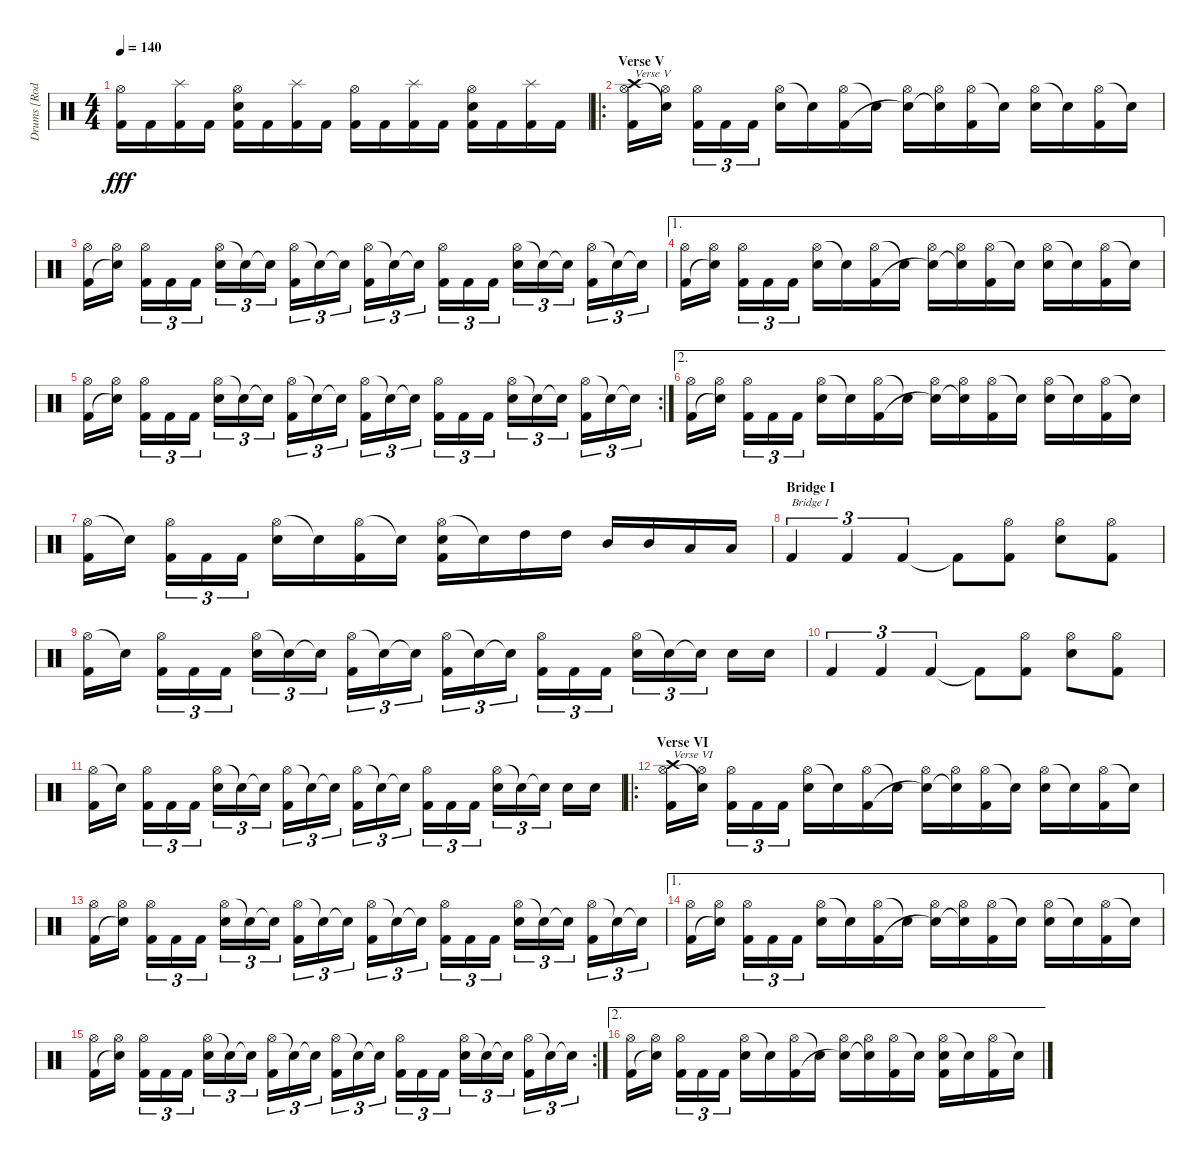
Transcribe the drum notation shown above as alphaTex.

\track ("Drums [Rodney Holder]" "Drums [Rod") {instrument percussion}
\staff {score}
\articulation defaults
\ts (4 4)
\tempo 140
\clef neutral
\ks c
("Hi-Hat (open)" "Kick (hit) 2").16{dy fff} "Kick (hit) 2".16 ("Splash (hit)" "Kick (hit) 2").16 "Kick (hit) 2".16 ("Hi-Hat (open)" "Electric Snare (hit)" "Kick (hit) 2").16 "Kick (hit) 2".16 ("Splash (hit)" "Kick (hit) 2").16 "Kick (hit) 2".16 ("Hi-Hat (open)" "Kick (hit) 2").16 "Kick (hit) 2".16 ("Splash (hit)" "Kick (hit) 2").16 "Kick (hit) 2".16 ("Hi-Hat (open)" "Electric Snare (hit)" "Kick (hit) 2").16 "Kick (hit) 2".16 ("Splash (hit)" "Kick (hit) 2").16 "Kick (hit) 2".16 |
\ro
\section ("" "Verse V")
("Crash high (hit)" "Hi-Hat (open)" "Kick (hit) 2").16{txt "Verse V"} ("Hi-Hat (open)" "Snare (hit)"{t}).16 ("Hi-Hat (open)" "Kick (hit) 2").16{tu (3 2)} "Kick (hit) 2".16{tu (3 2)} "Kick (hit) 2".16{tu (3 2)} ("Hi-Hat (open)" "Electric Snare (hit)").16 "Snare (hit)"{t}.16 ("Hi-Hat (open)" "Kick (hit) 2").16 "Snare (hit)"{t}.16 ("Hi-Hat (open)" "Snare (hit)"{t}).16 ("Hi-Hat (open)" "Snare (hit)"{t}).16 ("Hi-Hat (open)" "Kick (hit) 2").16 "Snare (hit)"{t}.16 ("Hi-Hat (open)" "Electric Snare (hit)").16 "Snare (hit)"{t}.16 ("Hi-Hat (open)" "Kick (hit) 2").16 "Snare (hit)"{t}.16 |
("Hi-Hat (open)" "Kick (hit) 2").16 ("Hi-Hat (open)" "Snare (hit)"{t}).16 ("Hi-Hat (open)" "Kick (hit) 2").16{tu (3 2)} "Kick (hit) 2".16{tu (3 2)} "Kick (hit) 2".16{tu (3 2)} ("Hi-Hat (open)" "Electric Snare (hit)").16{tu (3 2)} "Snare (hit)"{t}.16{tu (3 2)} "Snare (hit)"{t}.16{tu (3 2)} ("Hi-Hat (open)" "Kick (hit) 2").16{tu (3 2)} "Snare (hit)"{t}.16{tu (3 2)} "Snare (hit)"{t}.16{tu (3 2)} ("Hi-Hat (open)" "Kick (hit) 2").16{tu (3 2)} "Snare (hit)"{t}.16{tu (3 2)} "Snare (hit)"{t}.16{tu (3 2)} ("Hi-Hat (open)" "Kick (hit) 2").16{tu (3 2)} "Kick (hit) 2".16{tu (3 2)} "Kick (hit) 2".16{tu (3 2)} ("Hi-Hat (open)" "Electric Snare (hit)").16{tu (3 2)} "Snare (hit)"{t}.16{tu (3 2)} "Snare (hit)"{t}.16{tu (3 2)} ("Hi-Hat (open)" "Kick (hit) 2").16{tu (3 2)} "Snare (hit)"{t}.16{tu (3 2)} "Snare (hit)"{t}.16{tu (3 2)} |
\ae 1
("Hi-Hat (open)" "Kick (hit) 2").16 ("Hi-Hat (open)" "Snare (hit)"{t}).16 ("Hi-Hat (open)" "Kick (hit) 2").16{tu (3 2)} "Kick (hit) 2".16{tu (3 2)} "Kick (hit) 2".16{tu (3 2)} ("Hi-Hat (open)" "Electric Snare (hit)").16 "Snare (hit)"{t}.16 ("Hi-Hat (open)" "Kick (hit) 2").16 "Snare (hit)"{t}.16 ("Hi-Hat (open)" "Snare (hit)"{t}).16 ("Hi-Hat (open)" "Snare (hit)"{t}).16 ("Hi-Hat (open)" "Kick (hit) 2").16 "Snare (hit)"{t}.16 ("Hi-Hat (open)" "Electric Snare (hit)").16 "Snare (hit)"{t}.16 ("Hi-Hat (open)" "Kick (hit) 2").16 "Snare (hit)"{t}.16 |
\rc 2
("Hi-Hat (open)" "Kick (hit) 2").16 ("Hi-Hat (open)" "Snare (hit)"{t}).16 ("Hi-Hat (open)" "Kick (hit) 2").16{tu (3 2)} "Kick (hit) 2".16{tu (3 2)} "Kick (hit) 2".16{tu (3 2)} ("Hi-Hat (open)" "Electric Snare (hit)").16{tu (3 2)} "Snare (hit)"{t}.16{tu (3 2)} "Snare (hit)"{t}.16{tu (3 2)} ("Hi-Hat (open)" "Kick (hit) 2").16{tu (3 2)} "Snare (hit)"{t}.16{tu (3 2)} "Snare (hit)"{t}.16{tu (3 2)} ("Hi-Hat (open)" "Kick (hit) 2").16{tu (3 2)} "Snare (hit)"{t}.16{tu (3 2)} "Snare (hit)"{t}.16{tu (3 2)} ("Hi-Hat (open)" "Kick (hit) 2").16{tu (3 2)} "Kick (hit) 2".16{tu (3 2)} "Kick (hit) 2".16{tu (3 2)} ("Hi-Hat (open)" "Electric Snare (hit)").16{tu (3 2)} "Snare (hit)"{t}.16{tu (3 2)} "Snare (hit)"{t}.16{tu (3 2)} ("Hi-Hat (open)" "Kick (hit) 2").16{tu (3 2)} "Snare (hit)"{t}.16{tu (3 2)} "Snare (hit)"{t}.16{tu (3 2)} |
\ae 2
("Hi-Hat (open)" "Kick (hit) 2").16 ("Hi-Hat (open)" "Snare (hit)"{t}).16 ("Hi-Hat (open)" "Kick (hit) 2").16{tu (3 2)} "Kick (hit) 2".16{tu (3 2)} "Kick (hit) 2".16{tu (3 2)} ("Hi-Hat (open)" "Electric Snare (hit)").16 "Snare (hit)"{t}.16 ("Hi-Hat (open)" "Kick (hit) 2").16 "Snare (hit)"{t}.16 ("Hi-Hat (open)" "Snare (hit)"{t}).16 ("Hi-Hat (open)" "Snare (hit)"{t}).16 ("Hi-Hat (open)" "Kick (hit) 2").16 "Snare (hit)"{t}.16 ("Hi-Hat (open)" "Electric Snare (hit)").16 "Snare (hit)"{t}.16 ("Hi-Hat (open)" "Kick (hit) 2").16 "Snare (hit)"{t}.16 |
("Hi-Hat (open)" "Kick (hit) 2").16 "Snare (hit)"{t}.16 ("Hi-Hat (open)" "Kick (hit) 2").16{tu (3 2)} "Kick (hit) 2".16{tu (3 2)} "Kick (hit) 2".16{tu (3 2)} ("Hi-Hat (open)" "Electric Snare (hit)").16 "Snare (hit)"{t}.16 ("Hi-Hat (open)" "Kick (hit) 2").16 "Snare (hit)"{t}.16 ("Hi-Hat (open)" "Electric Snare (hit)" "Kick (hit) 2").16 "Snare (hit)"{t}.16 "High Tom (hit)".16 "High Tom (hit)".16 "Mid Tom (hit)".16 "Mid Tom (hit)".16 "Low Tom (hit)".16 "Low Tom (hit)".16 |
\section ("" "Bridge I")
"Kick (hit) 2".4{tu (3 2) txt "Bridge I"} "Kick (hit) 2".4{tu (3 2)} "Kick (hit) 2".4{tu (3 2)} "Kick (hit) 2"{t}.8 ("Hi-Hat (open)" "Kick (hit) 2").8 ("Hi-Hat (open)" "Electric Snare (hit)").8 ("Hi-Hat (open)" "Kick (hit) 2").8 |
("Hi-Hat (open)" "Kick (hit) 2").16 "Snare (hit)"{t}.16 ("Hi-Hat (open)" "Kick (hit) 2").16{tu (3 2)} "Kick (hit) 2".16{tu (3 2)} "Kick (hit) 2".16{tu (3 2)} ("Hi-Hat (open)" "Electric Snare (hit)").16{tu (3 2)} "Snare (hit)"{t}.16{tu (3 2)} "Snare (hit)"{t}.16{tu (3 2)} ("Hi-Hat (open)" "Kick (hit) 2").16{tu (3 2)} "Snare (hit)"{t}.16{tu (3 2)} "Snare (hit)"{t}.16{tu (3 2)} ("Hi-Hat (open)" "Kick (hit) 2").16{tu (3 2)} "Snare (hit)"{t}.16{tu (3 2)} "Snare (hit)"{t}.16{tu (3 2)} ("Hi-Hat (open)" "Kick (hit) 2").16{tu (3 2)} "Kick (hit) 2".16{tu (3 2)} "Kick (hit) 2".16{tu (3 2)} ("Hi-Hat (open)" "Electric Snare (hit)").16{tu (3 2)} "Snare (hit)"{t}.16{tu (3 2)} "Snare (hit)"{t}.16{tu (3 2)} "Electric Snare (hit)".16 "Electric Snare (hit)".16 |
"Kick (hit) 2".4{tu (3 2)} "Kick (hit) 2".4{tu (3 2)} "Kick (hit) 2".4{tu (3 2)} "Kick (hit) 2"{t}.8 ("Hi-Hat (open)" "Kick (hit) 2").8 ("Hi-Hat (open)" "Electric Snare (hit)").8 ("Hi-Hat (open)" "Kick (hit) 2").8 |
("Hi-Hat (open)" "Kick (hit) 2").16 "Snare (hit)"{t}.16 ("Hi-Hat (open)" "Kick (hit) 2").16{tu (3 2)} "Kick (hit) 2".16{tu (3 2)} "Kick (hit) 2".16{tu (3 2)} ("Hi-Hat (open)" "Electric Snare (hit)").16{tu (3 2)} "Snare (hit)"{t}.16{tu (3 2)} "Snare (hit)"{t}.16{tu (3 2)} ("Hi-Hat (open)" "Kick (hit) 2").16{tu (3 2)} "Snare (hit)"{t}.16{tu (3 2)} "Snare (hit)"{t}.16{tu (3 2)} ("Hi-Hat (open)" "Kick (hit) 2").16{tu (3 2)} "Snare (hit)"{t}.16{tu (3 2)} "Snare (hit)"{t}.16{tu (3 2)} ("Hi-Hat (open)" "Kick (hit) 2").16{tu (3 2)} "Kick (hit) 2".16{tu (3 2)} "Kick (hit) 2".16{tu (3 2)} ("Hi-Hat (open)" "Electric Snare (hit)").16{tu (3 2)} "Snare (hit)"{t}.16{tu (3 2)} "Snare (hit)"{t}.16{tu (3 2)} "Electric Snare (hit)".16 "Electric Snare (hit)".16 |
\ro
\section ("" "Verse VI")
("Crash high (hit)" "Hi-Hat (open)" "Kick (hit) 2").16{txt "Verse VI"} ("Hi-Hat (open)" "Snare (hit)"{t}).16 ("Hi-Hat (open)" "Kick (hit) 2").16{tu (3 2)} "Kick (hit) 2".16{tu (3 2)} "Kick (hit) 2".16{tu (3 2)} ("Hi-Hat (open)" "Electric Snare (hit)").16 "Snare (hit)"{t}.16 ("Hi-Hat (open)" "Kick (hit) 2").16 "Snare (hit)"{t}.16 ("Hi-Hat (open)" "Snare (hit)"{t}).16 ("Hi-Hat (open)" "Snare (hit)"{t}).16 ("Hi-Hat (open)" "Kick (hit) 2").16 "Snare (hit)"{t}.16 ("Hi-Hat (open)" "Electric Snare (hit)").16 "Snare (hit)"{t}.16 ("Hi-Hat (open)" "Kick (hit) 2").16 "Snare (hit)"{t}.16 |
("Hi-Hat (open)" "Kick (hit) 2").16 ("Hi-Hat (open)" "Snare (hit)"{t}).16 ("Hi-Hat (open)" "Kick (hit) 2").16{tu (3 2)} "Kick (hit) 2".16{tu (3 2)} "Kick (hit) 2".16{tu (3 2)} ("Hi-Hat (open)" "Electric Snare (hit)").16{tu (3 2)} "Snare (hit)"{t}.16{tu (3 2)} "Snare (hit)"{t}.16{tu (3 2)} ("Hi-Hat (open)" "Kick (hit) 2").16{tu (3 2)} "Snare (hit)"{t}.16{tu (3 2)} "Snare (hit)"{t}.16{tu (3 2)} ("Hi-Hat (open)" "Kick (hit) 2").16{tu (3 2)} "Snare (hit)"{t}.16{tu (3 2)} "Snare (hit)"{t}.16{tu (3 2)} ("Hi-Hat (open)" "Kick (hit) 2").16{tu (3 2)} "Kick (hit) 2".16{tu (3 2)} "Kick (hit) 2".16{tu (3 2)} ("Hi-Hat (open)" "Electric Snare (hit)").16{tu (3 2)} "Snare (hit)"{t}.16{tu (3 2)} "Snare (hit)"{t}.16{tu (3 2)} ("Hi-Hat (open)" "Kick (hit) 2").16{tu (3 2)} "Snare (hit)"{t}.16{tu (3 2)} "Snare (hit)"{t}.16{tu (3 2)} |
\ae 1
("Hi-Hat (open)" "Kick (hit) 2").16 ("Hi-Hat (open)" "Snare (hit)"{t}).16 ("Hi-Hat (open)" "Kick (hit) 2").16{tu (3 2)} "Kick (hit) 2".16{tu (3 2)} "Kick (hit) 2".16{tu (3 2)} ("Hi-Hat (open)" "Electric Snare (hit)").16 "Snare (hit)"{t}.16 ("Hi-Hat (open)" "Kick (hit) 2").16 "Snare (hit)"{t}.16 ("Hi-Hat (open)" "Snare (hit)"{t}).16 ("Hi-Hat (open)" "Snare (hit)"{t}).16 ("Hi-Hat (open)" "Kick (hit) 2").16 "Snare (hit)"{t}.16 ("Hi-Hat (open)" "Electric Snare (hit)").16 "Snare (hit)"{t}.16 ("Hi-Hat (open)" "Kick (hit) 2").16 "Snare (hit)"{t}.16 |
\rc 2
("Hi-Hat (open)" "Kick (hit) 2").16 ("Hi-Hat (open)" "Snare (hit)"{t}).16 ("Hi-Hat (open)" "Kick (hit) 2").16{tu (3 2)} "Kick (hit) 2".16{tu (3 2)} "Kick (hit) 2".16{tu (3 2)} ("Hi-Hat (open)" "Electric Snare (hit)").16{tu (3 2)} "Snare (hit)"{t}.16{tu (3 2)} "Snare (hit)"{t}.16{tu (3 2)} ("Hi-Hat (open)" "Kick (hit) 2").16{tu (3 2)} "Snare (hit)"{t}.16{tu (3 2)} "Snare (hit)"{t}.16{tu (3 2)} ("Hi-Hat (open)" "Kick (hit) 2").16{tu (3 2)} "Snare (hit)"{t}.16{tu (3 2)} "Snare (hit)"{t}.16{tu (3 2)} ("Hi-Hat (open)" "Kick (hit) 2").16{tu (3 2)} "Kick (hit) 2".16{tu (3 2)} "Kick (hit) 2".16{tu (3 2)} ("Hi-Hat (open)" "Electric Snare (hit)").16{tu (3 2)} "Snare (hit)"{t}.16{tu (3 2)} "Snare (hit)"{t}.16{tu (3 2)} ("Hi-Hat (open)" "Kick (hit) 2").16{tu (3 2)} "Snare (hit)"{t}.16{tu (3 2)} "Snare (hit)"{t}.16{tu (3 2)} |
\ae 2
("Hi-Hat (open)" "Kick (hit) 2").16 ("Hi-Hat (open)" "Snare (hit)"{t}).16 ("Hi-Hat (open)" "Kick (hit) 2").16{tu (3 2)} "Kick (hit) 2".16{tu (3 2)} "Kick (hit) 2".16{tu (3 2)} ("Hi-Hat (open)" "Electric Snare (hit)").16 "Snare (hit)"{t}.16 ("Hi-Hat (open)" "Kick (hit) 2").16 "Snare (hit)"{t}.16 ("Hi-Hat (open)" "Snare (hit)"{t}).16 ("Hi-Hat (open)" "Snare (hit)"{t}).16 ("Hi-Hat (open)" "Kick (hit) 2").16 "Snare (hit)"{t}.16 ("Hi-Hat (open)" "Electric Snare (hit)" "Kick (hit) 2").16 "Snare (hit)"{t}.16 ("Hi-Hat (open)" "Kick (hit) 2").16 "Snare (hit)"{t}.16
